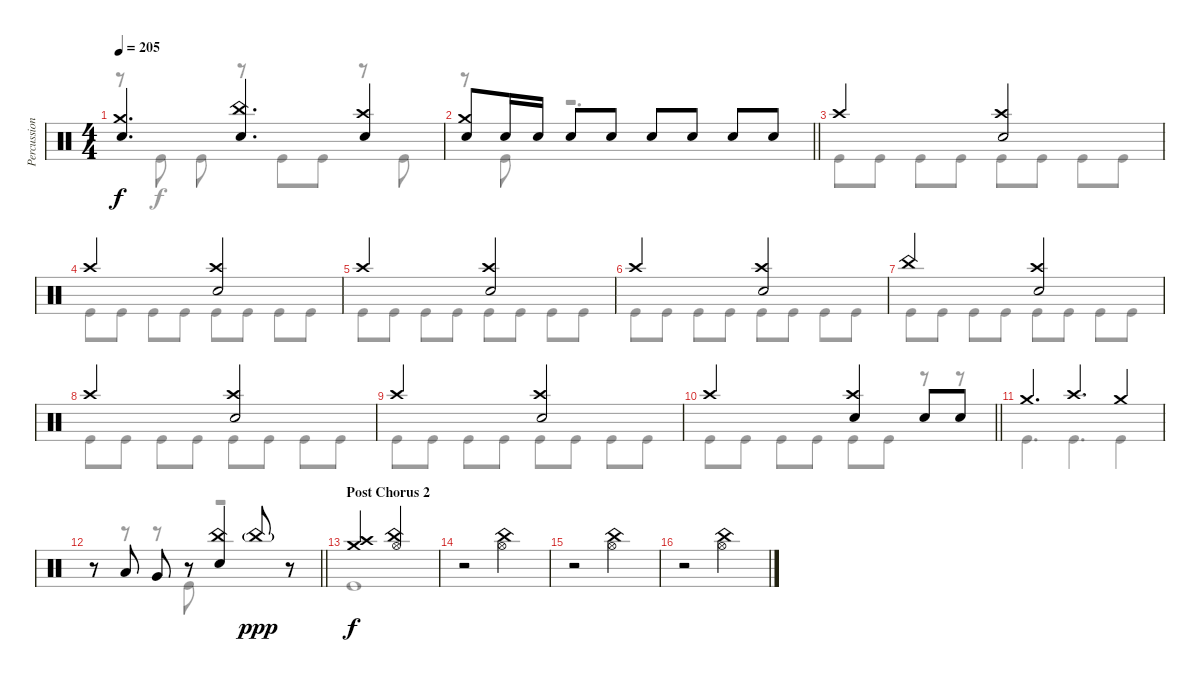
\track ("Percussion" "Percussion") {instrument percussion}
\staff {score}
\articulation defaults
\voice
\ts (4 4)
\tempo 205
\clef neutral
\ks c
("Crash medium (hit)" "Electric Snare (hit)").4{d dy f} ("China (hit)" "Electric Snare (hit)").4{d} ("Crash high (hit)" "Electric Snare (hit)").4 |
\barLineRight lightlight
("Crash medium (hit)" "Electric Snare (hit)").8 "Electric Snare (hit)".16 "Electric Snare (hit)".16 "Electric Snare (hit)".8 "Electric Snare (hit)".8 "Electric Snare (hit)".8 "Electric Snare (hit)".8 "Electric Snare (hit)".8 "Electric Snare (hit)".8 |
\section ("" "")
"Crash high (hit)".2 ("Crash high (hit)" "Electric Snare (hit)").2 |
"Crash high (hit)".2 ("Crash high (hit)" "Electric Snare (hit)").2 |
"Crash high (hit)".2 ("Crash high (hit)" "Electric Snare (hit)").2 |
"Crash high (hit)".2 ("Crash high (hit)" "Electric Snare (hit)").2 |
"China (hit)".2 ("Crash high (hit)" "Electric Snare (hit)").2 |
"Crash high (hit)".2 ("Crash high (hit)" "Electric Snare (hit)").2 |
"Crash high (hit)".2 ("Crash high (hit)" "Electric Snare (hit)").2 |
\barLineRight lightlight "Crash high (hit)".2
("Crash high (hit)" "Electric Snare (hit)").4 "Electric Snare (hit)".8 "Electric Snare (hit)".8 |
\section ("" "")
"Crash medium (hit)".4{d} "Crash high (hit)".4{d} "Crash medium (hit)".4 |
\barLineRight lightlight
r.8 "Low Tom (hit)".8 "Very Low Tom (hit)".8 r.8 ("China (hit)" "Electric Snare (hit)").4 "China (hit)"{g}.8{dy ppp} r.8 |
\section ("" "Post Chorus 2")
("Crash medium (hit)" "Crash high (hit)").2{dy f} ("China (hit)" "Hi-Hat (open)").2 |
r.2 ("China (hit)" "Hi-Hat (open)").2 |
r.2 ("China (hit)" "Hi-Hat (open)").2 |
r.2 ("China (hit)" "Hi-Hat (open)").2
\voice
\clef neutral
\ottava regular
\simile none
\ks c
r.8{dy f} "Kick (hit)".8 "Kick (hit)".8 r.8 "Kick (hit)".8 "Kick (hit)".8 r.8 "Kick (hit)".8 |
\barLineRight lightlight
r.8 "Kick (hit)".8 r.2{d} |
"Kick (hit)".8 "Kick (hit)".8 "Kick (hit)".8 "Kick (hit)".8 "Kick (hit)".8 "Kick (hit)".8 "Kick (hit)".8 "Kick (hit)".8 |
"Kick (hit)".8 "Kick (hit)".8 "Kick (hit)".8 "Kick (hit)".8 "Kick (hit)".8 "Kick (hit)".8 "Kick (hit)".8 "Kick (hit)".8 |
"Kick (hit)".8 "Kick (hit)".8 "Kick (hit)".8 "Kick (hit)".8 "Kick (hit)".8 "Kick (hit)".8 "Kick (hit)".8 "Kick (hit)".8 |
"Kick (hit)".8 "Kick (hit)".8 "Kick (hit)".8 "Kick (hit)".8 "Kick (hit)".8 "Kick (hit)".8 "Kick (hit)".8 "Kick (hit)".8 |
"Kick (hit)".8 "Kick (hit)".8 "Kick (hit)".8 "Kick (hit)".8 "Kick (hit)".8 "Kick (hit)".8 "Kick (hit)".8 "Kick (hit)".8 |
"Kick (hit)".8 "Kick (hit)".8 "Kick (hit)".8 "Kick (hit)".8 "Kick (hit)".8 "Kick (hit)".8 "Kick (hit)".8 "Kick (hit)".8 |
"Kick (hit)".8 "Kick (hit)".8 "Kick (hit)".8 "Kick (hit)".8 "Kick (hit)".8 "Kick (hit)".8 "Kick (hit)".8 "Kick (hit)".8 |
\barLineRight lightlight "Kick (hit)".8 "Kick (hit)".8 "Kick (hit)".8 "Kick (hit)".8 "Kick (hit)".8 "Kick (hit)".8
r.8 r.8 |
"Kick (hit)".4{d} "Kick (hit)".4{d} "Kick (hit)".4 |
\barLineRight lightlight
r.8 r.8 r.8 "Kick (hit)".8 r.2 |
"Kick (hit)".1 |
|
|
